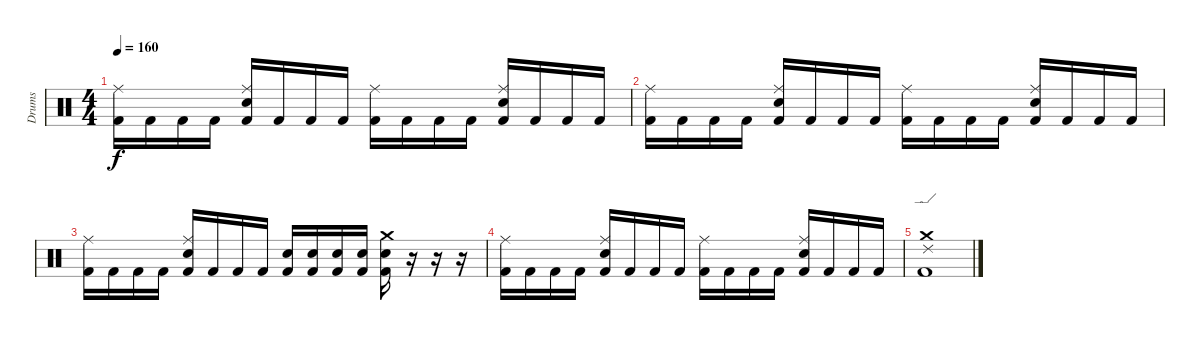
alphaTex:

\track ("Drums" "Drums") {instrument percussion}
\staff {score}
\articulation defaults
\ts (4 4)
\tempo 160
\clef neutral
\ks c
("Kick (hit) 2" "Ride (middle)").16{dy f} "Kick (hit) 2".16 "Kick (hit) 2".16 "Kick (hit) 2".16 ("Kick (hit) 2" "Electric Snare (hit)" "Ride (middle)").16 "Kick (hit) 2".16 "Kick (hit) 2".16 "Kick (hit) 2".16 ("Kick (hit) 2" "Ride (middle)").16 "Kick (hit) 2".16 "Kick (hit) 2".16 "Kick (hit) 2".16 ("Kick (hit) 2" "Electric Snare (hit)" "Ride (middle)").16 "Kick (hit) 2".16 "Kick (hit) 2".16 "Kick (hit) 2".16 |
("Kick (hit) 2" "Ride (middle)").16 "Kick (hit) 2".16 "Kick (hit) 2".16 "Kick (hit) 2".16 ("Kick (hit) 2" "Electric Snare (hit)" "Ride (middle)").16 "Kick (hit) 2".16 "Kick (hit) 2".16 "Kick (hit) 2".16 ("Kick (hit) 2" "Ride (middle)").16 "Kick (hit) 2".16 "Kick (hit) 2".16 "Kick (hit) 2".16 ("Kick (hit) 2" "Electric Snare (hit)" "Ride (middle)").16 "Kick (hit) 2".16 "Kick (hit) 2".16 "Kick (hit) 2".16 |
("Kick (hit) 2" "Ride (middle)").16 "Kick (hit) 2".16 "Kick (hit) 2".16 "Kick (hit) 2".16 ("Kick (hit) 2" "Electric Snare (hit)" "Ride (middle)").16 "Kick (hit) 2".16 "Kick (hit) 2".16 "Kick (hit) 2".16 ("Kick (hit) 2" "Electric Snare (hit)").16 ("Kick (hit) 2" "Electric Snare (hit)").16 ("Kick (hit) 2" "Electric Snare (hit)").16 ("Kick (hit) 2" "Electric Snare (hit)").16 ("Kick (hit) 2" "Electric Snare (hit)" "Crash medium (hit)").16 r.16 r.16 r.16 |
("Kick (hit) 2" "Ride (middle)").16 "Kick (hit) 2".16 "Kick (hit) 2".16 "Kick (hit) 2".16 ("Kick (hit) 2" "Electric Snare (hit)" "Ride (middle)").16 "Kick (hit) 2".16 "Kick (hit) 2".16 "Kick (hit) 2".16 ("Kick (hit) 2" "Ride (middle)").16 "Kick (hit) 2".16 "Kick (hit) 2".16 "Kick (hit) 2".16 ("Kick (hit) 2" "Electric Snare (hit)" "Ride (middle)").16 "Kick (hit) 2".16 "Kick (hit) 2".16 "Kick (hit) 2".16 |
("Kick (hit) 2" "Crash medium (hit)" "Ride (edge) 2").1
